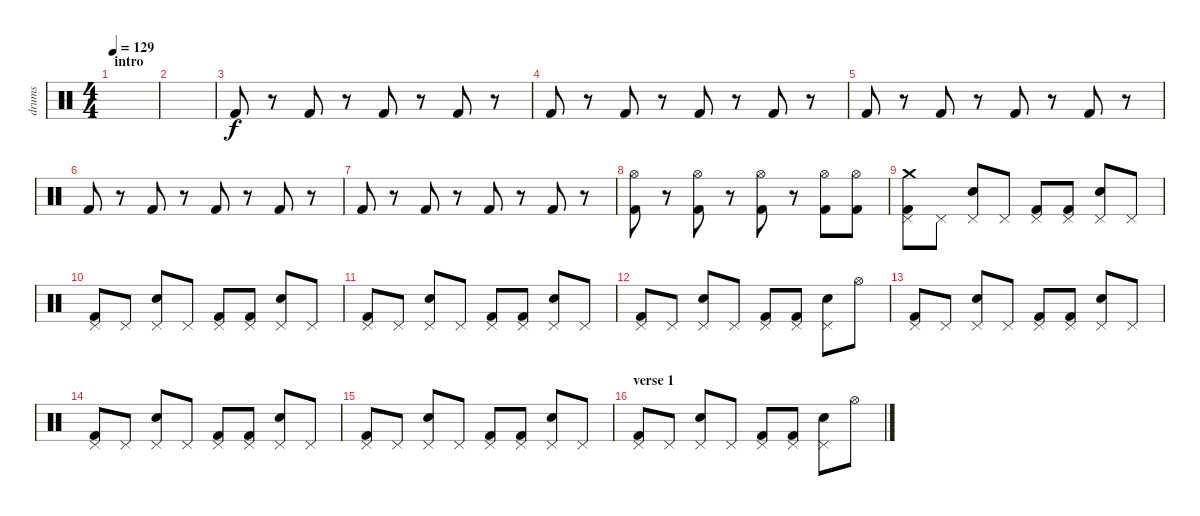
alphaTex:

\track ("drums" "drums") {instrument percussion}
\staff {score}
\articulation defaults
\ts (4 4)
\section ("" "intro")
\tempo 129
\clef neutral
\ks c
|
|
"Kick (hit) 2".8 r.8 "Kick (hit) 2".8 r.8 "Kick (hit) 2".8 r.8 "Kick (hit) 2".8 r.8 |
"Kick (hit) 2".8 r.8 "Kick (hit) 2".8 r.8 "Kick (hit) 2".8 r.8 "Kick (hit) 2".8 r.8 |
"Kick (hit) 2".8 r.8 "Kick (hit) 2".8 r.8 "Kick (hit) 2".8 r.8 "Kick (hit) 2".8 r.8 |
"Kick (hit) 2".8 r.8 "Kick (hit) 2".8 r.8 "Kick (hit) 2".8 r.8 "Kick (hit) 2".8 r.8 |
"Kick (hit) 2".8 r.8 "Kick (hit) 2".8 r.8 "Kick (hit) 2".8 r.8 "Kick (hit) 2".8 r.8 |
("Kick (hit) 2" "Hi-Hat (open)").8 r.8 ("Kick (hit) 2" "Hi-Hat (open)").8 r.8 ("Kick (hit) 2" "Hi-Hat (open)").8 r.8 ("Kick (hit) 2" "Hi-Hat (open)").8 ("Kick (hit) 2" "Hi-Hat (open)").8 |
("Kick (hit) 2" "Pedal Hi-Hat (hit)" "Crash medium (hit)").8 "Pedal Hi-Hat (hit)".8 ("Electric Snare (hit)" "Pedal Hi-Hat (hit)").8 "Pedal Hi-Hat (hit)".8 ("Kick (hit) 2" "Pedal Hi-Hat (hit)").8 ("Kick (hit) 2" "Pedal Hi-Hat (hit)").8 ("Electric Snare (hit)" "Pedal Hi-Hat (hit)").8 "Pedal Hi-Hat (hit)".8 |
("Kick (hit) 2" "Pedal Hi-Hat (hit)").8 "Pedal Hi-Hat (hit)".8 ("Electric Snare (hit)" "Pedal Hi-Hat (hit)").8 "Pedal Hi-Hat (hit)".8 ("Kick (hit) 2" "Pedal Hi-Hat (hit)").8 ("Kick (hit) 2" "Pedal Hi-Hat (hit)").8 ("Electric Snare (hit)" "Pedal Hi-Hat (hit)").8 "Pedal Hi-Hat (hit)".8 |
("Kick (hit) 2" "Pedal Hi-Hat (hit)").8 "Pedal Hi-Hat (hit)".8 ("Electric Snare (hit)" "Pedal Hi-Hat (hit)").8 "Pedal Hi-Hat (hit)".8 ("Kick (hit) 2" "Pedal Hi-Hat (hit)").8 ("Kick (hit) 2" "Pedal Hi-Hat (hit)").8 ("Electric Snare (hit)" "Pedal Hi-Hat (hit)").8 "Pedal Hi-Hat (hit)".8 |
("Kick (hit) 2" "Pedal Hi-Hat (hit)").8 "Pedal Hi-Hat (hit)".8 ("Electric Snare (hit)" "Pedal Hi-Hat (hit)").8 "Pedal Hi-Hat (hit)".8 ("Kick (hit) 2" "Pedal Hi-Hat (hit)").8 ("Kick (hit) 2" "Pedal Hi-Hat (hit)").8 ("Electric Snare (hit)" "Pedal Hi-Hat (hit)").8 "Hi-Hat (open)".8 |
("Kick (hit) 2" "Pedal Hi-Hat (hit)").8 "Pedal Hi-Hat (hit)".8 ("Electric Snare (hit)" "Pedal Hi-Hat (hit)").8 "Pedal Hi-Hat (hit)".8 ("Kick (hit) 2" "Pedal Hi-Hat (hit)").8 ("Kick (hit) 2" "Pedal Hi-Hat (hit)").8 ("Electric Snare (hit)" "Pedal Hi-Hat (hit)").8 "Pedal Hi-Hat (hit)".8 |
("Kick (hit) 2" "Pedal Hi-Hat (hit)").8 "Pedal Hi-Hat (hit)".8 ("Electric Snare (hit)" "Pedal Hi-Hat (hit)").8 "Pedal Hi-Hat (hit)".8 ("Kick (hit) 2" "Pedal Hi-Hat (hit)").8 ("Kick (hit) 2" "Pedal Hi-Hat (hit)").8 ("Electric Snare (hit)" "Pedal Hi-Hat (hit)").8 "Pedal Hi-Hat (hit)".8 |
("Kick (hit) 2" "Pedal Hi-Hat (hit)").8 "Pedal Hi-Hat (hit)".8 ("Electric Snare (hit)" "Pedal Hi-Hat (hit)").8 "Pedal Hi-Hat (hit)".8 ("Kick (hit) 2" "Pedal Hi-Hat (hit)").8 ("Kick (hit) 2" "Pedal Hi-Hat (hit)").8 ("Electric Snare (hit)" "Pedal Hi-Hat (hit)").8 "Pedal Hi-Hat (hit)".8 |
\section ("" "verse 1")
("Kick (hit) 2" "Pedal Hi-Hat (hit)").8 "Pedal Hi-Hat (hit)".8 ("Electric Snare (hit)" "Pedal Hi-Hat (hit)").8 "Pedal Hi-Hat (hit)".8 ("Kick (hit) 2" "Pedal Hi-Hat (hit)").8 ("Kick (hit) 2" "Pedal Hi-Hat (hit)").8 ("Electric Snare (hit)" "Pedal Hi-Hat (hit)").8 "Hi-Hat (open)".8
